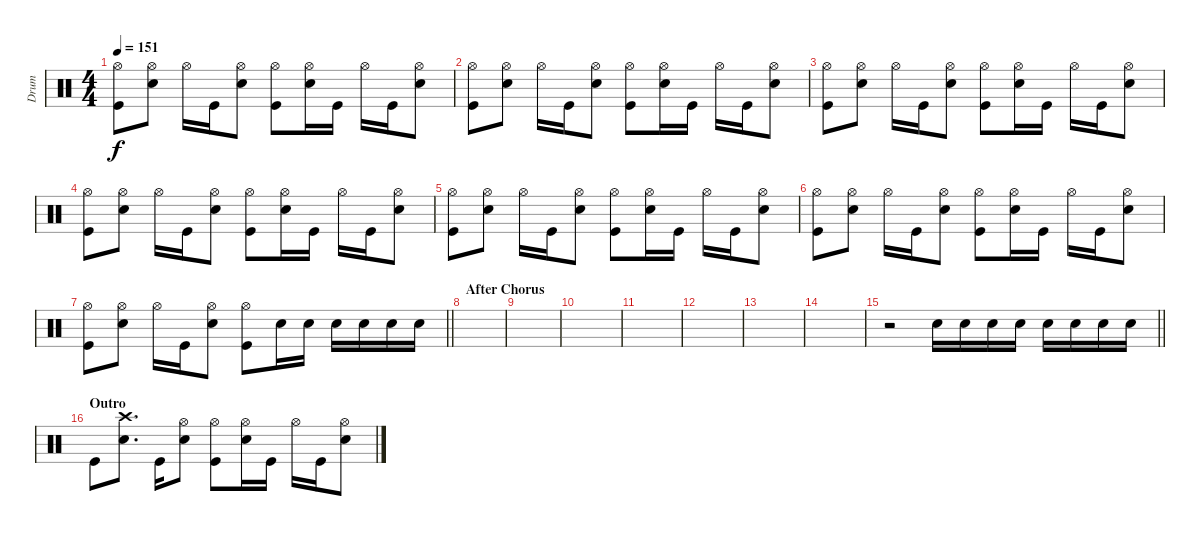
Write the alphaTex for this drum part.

\track ("Drum" "Drum") {instrument percussion}
\staff {score}
\articulation defaults
\ts (4 4)
\tempo 151
\clef neutral
\ks c
("Hi-Hat (open)" "Kick (hit)").8{dy f} ("Hi-Hat (open)" "Snare (hit) 2").8 "Hi-Hat (open)".16 "Kick (hit)".16 ("Hi-Hat (open)" "Snare (hit) 2").8 ("Hi-Hat (open)" "Kick (hit)").8 ("Hi-Hat (open)" "Snare (hit) 2").16 "Kick (hit)".16 "Hi-Hat (open)".16 "Kick (hit)".16 ("Hi-Hat (open)" "Snare (hit) 2").8 |
("Hi-Hat (open)" "Kick (hit)").8 ("Hi-Hat (open)" "Snare (hit) 2").8 "Hi-Hat (open)".16 "Kick (hit)".16 ("Hi-Hat (open)" "Snare (hit) 2").8 ("Hi-Hat (open)" "Kick (hit)").8 ("Hi-Hat (open)" "Snare (hit) 2").16 "Kick (hit)".16 "Hi-Hat (open)".16 "Kick (hit)".16 ("Hi-Hat (open)" "Snare (hit) 2").8 |
("Hi-Hat (open)" "Kick (hit)").8 ("Hi-Hat (open)" "Snare (hit) 2").8 "Hi-Hat (open)".16 "Kick (hit)".16 ("Hi-Hat (open)" "Snare (hit) 2").8 ("Hi-Hat (open)" "Kick (hit)").8 ("Hi-Hat (open)" "Snare (hit) 2").16 "Kick (hit)".16 "Hi-Hat (open)".16 "Kick (hit)".16 ("Hi-Hat (open)" "Snare (hit) 2").8 |
("Hi-Hat (open)" "Kick (hit)").8 ("Hi-Hat (open)" "Snare (hit) 2").8 "Hi-Hat (open)".16 "Kick (hit)".16 ("Hi-Hat (open)" "Snare (hit) 2").8 ("Hi-Hat (open)" "Kick (hit)").8 ("Hi-Hat (open)" "Snare (hit) 2").16 "Kick (hit)".16 "Hi-Hat (open)".16 "Kick (hit)".16 ("Hi-Hat (open)" "Snare (hit) 2").8 |
("Hi-Hat (open)" "Kick (hit)").8 ("Hi-Hat (open)" "Snare (hit) 2").8 "Hi-Hat (open)".16 "Kick (hit)".16 ("Hi-Hat (open)" "Snare (hit) 2").8 ("Hi-Hat (open)" "Kick (hit)").8 ("Hi-Hat (open)" "Snare (hit) 2").16 "Kick (hit)".16 "Hi-Hat (open)".16 "Kick (hit)".16 ("Hi-Hat (open)" "Snare (hit) 2").8 |
("Hi-Hat (open)" "Kick (hit)").8 ("Hi-Hat (open)" "Snare (hit) 2").8 "Hi-Hat (open)".16 "Kick (hit)".16 ("Hi-Hat (open)" "Snare (hit) 2").8 ("Hi-Hat (open)" "Kick (hit)").8 ("Hi-Hat (open)" "Snare (hit) 2").16 "Kick (hit)".16 "Hi-Hat (open)".16 "Kick (hit)".16 ("Hi-Hat (open)" "Snare (hit) 2").8 |
\barLineRight lightlight
("Hi-Hat (open)" "Kick (hit)").8 ("Hi-Hat (open)" "Snare (hit) 2").8 "Hi-Hat (open)".16 "Kick (hit)".16 ("Hi-Hat (open)" "Snare (hit) 2").8 ("Hi-Hat (open)" "Kick (hit)").8 "Snare (hit) 2".16 "Snare (hit) 2".16 "Snare (hit) 2".16 "Snare (hit) 2".16 "Snare (hit) 2".16 "Snare (hit) 2".16 |
\section ("" "After Chorus")
|
|
|
|
|
|
|
\barLineRight lightlight
r.2 "Snare (hit) 2".16 "Snare (hit) 2".16 "Snare (hit) 2".16 "Snare (hit) 2".16 "Snare (hit) 2".16 "Snare (hit) 2".16 "Snare (hit) 2".16 "Snare (hit) 2".16 |
\section ("" "Outro")
"Kick (hit)".8 ("Crash high (hit)" "Snare (hit) 2").8{d} "Kick (hit)".16 ("Hi-Hat (open)" "Snare (hit) 2").8 ("Hi-Hat (open)" "Kick (hit)").8 ("Hi-Hat (open)" "Snare (hit) 2").16 "Kick (hit)".16 "Hi-Hat (open)".16 "Kick (hit)".16 ("Hi-Hat (open)" "Snare (hit) 2").8
